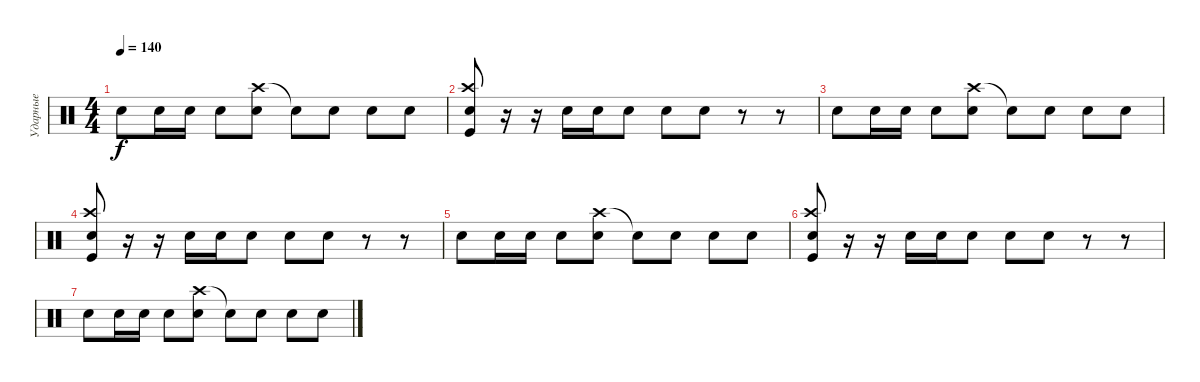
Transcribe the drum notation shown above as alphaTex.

\track ("Ударные" "Ударные") {instrument percussion}
\staff {score}
\articulation defaults
\ts (4 4)
\tempo 140
\clef neutral
\ks c "Electric Snare (hit)".8{dy f} "Electric Snare (hit)".16 "Electric Snare (hit)".16 "Electric Snare (hit)".8
("Crash high (hit)" "Electric Snare (hit)").8 "Electric Snare (hit)"{t}.8 "Electric Snare (hit)".8 "Electric Snare (hit)".8 "Electric Snare (hit)".8 |
("Crash high (hit)" "Electric Snare (hit)" "Kick (hit)").8 r.16 r.16 "Electric Snare (hit)".16 "Electric Snare (hit)".16 "Electric Snare (hit)".8 "Electric Snare (hit)".8 "Electric Snare (hit)".8 r.8 r.8 |
"Electric Snare (hit)".8 "Electric Snare (hit)".16 "Electric Snare (hit)".16 "Electric Snare (hit)".8 ("Crash high (hit)" "Electric Snare (hit)").8 "Electric Snare (hit)"{t}.8 "Electric Snare (hit)".8 "Electric Snare (hit)".8 "Electric Snare (hit)".8 |
("Crash high (hit)" "Electric Snare (hit)" "Kick (hit)").8 r.16 r.16 "Electric Snare (hit)".16 "Electric Snare (hit)".16 "Electric Snare (hit)".8 "Electric Snare (hit)".8 "Electric Snare (hit)".8 r.8 r.8 |
"Electric Snare (hit)".8 "Electric Snare (hit)".16 "Electric Snare (hit)".16 "Electric Snare (hit)".8 ("Crash high (hit)" "Electric Snare (hit)").8 "Electric Snare (hit)"{t}.8 "Electric Snare (hit)".8 "Electric Snare (hit)".8 "Electric Snare (hit)".8 |
("Crash high (hit)" "Electric Snare (hit)" "Kick (hit)").8 r.16 r.16 "Electric Snare (hit)".16 "Electric Snare (hit)".16 "Electric Snare (hit)".8 "Electric Snare (hit)".8 "Electric Snare (hit)".8 r.8 r.8 |
"Electric Snare (hit)".8 "Electric Snare (hit)".16 "Electric Snare (hit)".16 "Electric Snare (hit)".8 ("Crash high (hit)" "Electric Snare (hit)").8 "Electric Snare (hit)"{t}.8 "Electric Snare (hit)".8 "Electric Snare (hit)".8 "Electric Snare (hit)".8
